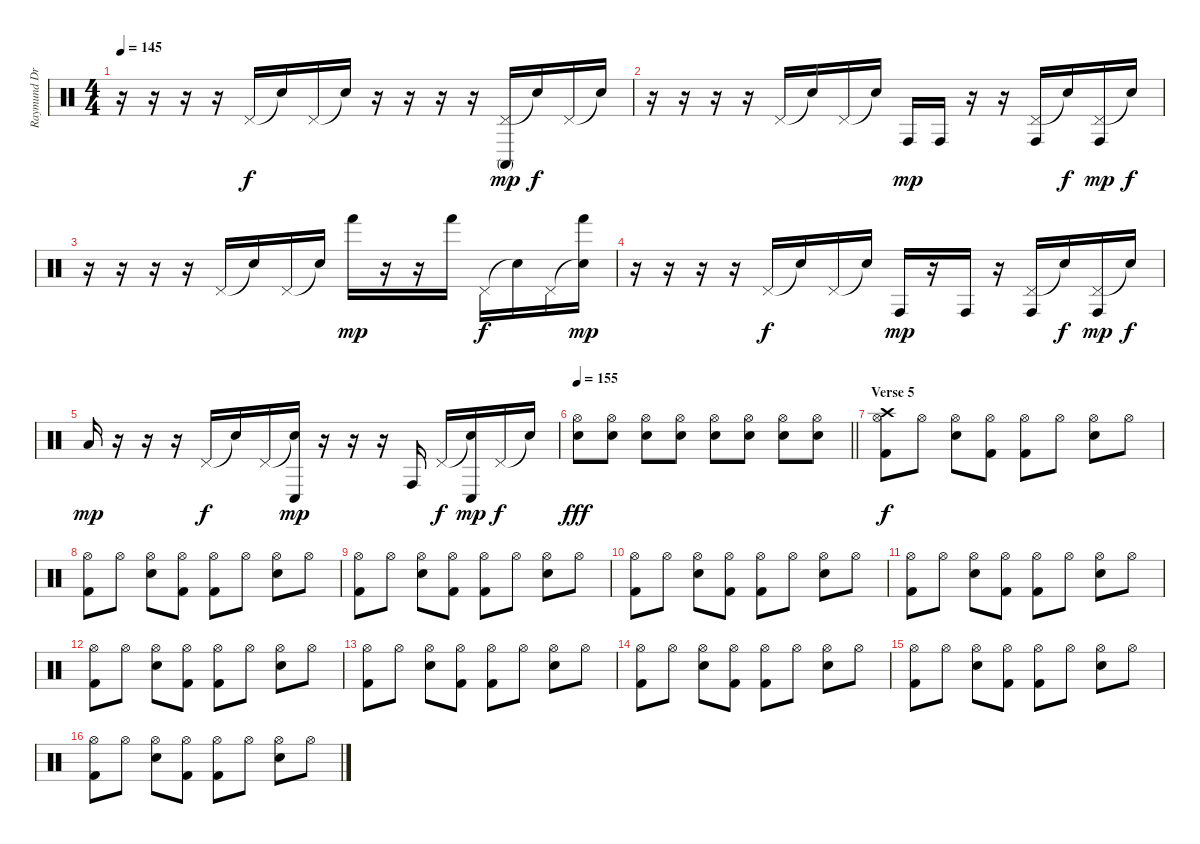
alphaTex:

\track ("Raymund Drums" "Raymund Dr") {instrument percussion}
\staff {score}
\articulation defaults
\ts (4 4)
\tempo 145
\clef neutral
\ks c
r.16{dy f} r.16 r.16 r.16 "Pedal Hi-Hat (hit)".16 "Snare (hit)"{t}.16 "Pedal Hi-Hat (hit)".16 "Snare (hit)"{t}.16 r.16 r.16 r.16 r.16 ("Pedal Hi-Hat (hit)" "Conga high (mute)").16{dy mp} "Snare (hit)"{t}.16{dy f} "Pedal Hi-Hat (hit)".16 "Snare (hit)"{t}.16 |
r.16 r.16 r.16 r.16 "Pedal Hi-Hat (hit)".16 "Snare (hit)"{t}.16 "Pedal Hi-Hat (hit)".16 "Snare (hit)"{t}.16 "Conga high (hit)".16{dy mp} "Conga high (hit)".16 r.16 r.16 ("Pedal Hi-Hat (hit)" "Conga high (hit)").16 "Snare (hit)"{t}.16{dy f} ("Pedal Hi-Hat (hit)" "Conga high (hit)").16{dy mp} "Snare (hit)"{t}.16{dy f} |
r.16 r.16 r.16 r.16 "Pedal Hi-Hat (hit)".16 "Snare (hit)"{t}.16 "Pedal Hi-Hat (hit)".16 "Snare (hit)"{t}.16 "Hand (hit)".16{dy mp} r.16 r.16 "Hand (hit)".16 "Pedal Hi-Hat (hit)".16{dy f} "Snare (hit)"{t}.16 "Pedal Hi-Hat (hit)".16 ("Snare (hit)"{t} "Hand (hit)").16{dy mp} |
r.16 r.16 r.16 r.16 "Pedal Hi-Hat (hit)".16{dy f} "Snare (hit)"{t}.16 "Pedal Hi-Hat (hit)".16 "Snare (hit)"{t}.16 "Conga high (hit)".16{dy mp} r.16 "Conga high (hit)".16 r.16 ("Pedal Hi-Hat (hit)" "Conga high (hit)").16 "Snare (hit)"{t}.16{dy f} ("Pedal Hi-Hat (hit)" "Conga high (hit)").16{dy mp} "Snare (hit)"{t}.16{dy f} |
"Low Tom (hit)".16{dy mp} r.16 r.16 r.16 "Pedal Hi-Hat (hit)".16{dy f} "Snare (hit)"{t}.16 "Pedal Hi-Hat (hit)".16 ("Snare (hit)"{t} "Conga low (hit)").16{dy mp} r.16 r.16 r.16 "Conga high (hit)".16 "Pedal Hi-Hat (hit)".16{dy f} ("Snare (hit)"{t} "Conga low (hit)").16{dy mp} "Pedal Hi-Hat (hit)".16{dy f} "Snare (hit)"{t}.16 |
\tempo 155
\barLineRight lightlight
("Hi-Hat (open)" "Snare (hit) 2").8{dy fff} ("Hi-Hat (open)" "Snare (hit) 2").8 ("Hi-Hat (open)" "Snare (hit) 2").8 ("Hi-Hat (open)" "Snare (hit) 2").8 ("Hi-Hat (open)" "Snare (hit) 2").8 ("Hi-Hat (open)" "Snare (hit) 2").8 ("Hi-Hat (open)" "Snare (hit) 2").8 ("Hi-Hat (open)" "Snare (hit) 2").8 |
\section ("" "Verse 5")
("Hi-Hat (open)" "Kick (hit) 2" "Crash high (hit)").8{dy f} "Hi-Hat (open)".8 ("Hi-Hat (open)" "Snare (hit) 2").8 ("Hi-Hat (open)" "Kick (hit) 2").8 ("Hi-Hat (open)" "Kick (hit) 2").8 "Hi-Hat (open)".8 ("Hi-Hat (open)" "Snare (hit) 2").8 "Hi-Hat (open)".8 |
("Hi-Hat (open)" "Kick (hit) 2").8 "Hi-Hat (open)".8 ("Hi-Hat (open)" "Snare (hit) 2").8 ("Hi-Hat (open)" "Kick (hit) 2").8 ("Hi-Hat (open)" "Kick (hit) 2").8 "Hi-Hat (open)".8 ("Hi-Hat (open)" "Snare (hit) 2").8 "Hi-Hat (open)".8 |
("Hi-Hat (open)" "Kick (hit) 2").8 "Hi-Hat (open)".8 ("Hi-Hat (open)" "Snare (hit) 2").8 ("Hi-Hat (open)" "Kick (hit) 2").8 ("Hi-Hat (open)" "Kick (hit) 2").8 "Hi-Hat (open)".8 ("Hi-Hat (open)" "Snare (hit) 2").8 "Hi-Hat (open)".8 |
("Hi-Hat (open)" "Kick (hit) 2").8 "Hi-Hat (open)".8 ("Hi-Hat (open)" "Snare (hit) 2").8 ("Hi-Hat (open)" "Kick (hit) 2").8 ("Hi-Hat (open)" "Kick (hit) 2").8 "Hi-Hat (open)".8 ("Hi-Hat (open)" "Snare (hit) 2").8 "Hi-Hat (open)".8 |
("Hi-Hat (open)" "Kick (hit) 2").8 "Hi-Hat (open)".8 ("Hi-Hat (open)" "Snare (hit) 2").8 ("Hi-Hat (open)" "Kick (hit) 2").8 ("Hi-Hat (open)" "Kick (hit) 2").8 "Hi-Hat (open)".8 ("Hi-Hat (open)" "Snare (hit) 2").8 "Hi-Hat (open)".8 |
("Hi-Hat (open)" "Kick (hit) 2").8 "Hi-Hat (open)".8 ("Hi-Hat (open)" "Snare (hit) 2").8 ("Hi-Hat (open)" "Kick (hit) 2").8 ("Hi-Hat (open)" "Kick (hit) 2").8 "Hi-Hat (open)".8 ("Hi-Hat (open)" "Snare (hit) 2").8 "Hi-Hat (open)".8 |
("Hi-Hat (open)" "Kick (hit) 2").8 "Hi-Hat (open)".8 ("Hi-Hat (open)" "Snare (hit) 2").8 ("Hi-Hat (open)" "Kick (hit) 2").8 ("Hi-Hat (open)" "Kick (hit) 2").8 "Hi-Hat (open)".8 ("Hi-Hat (open)" "Snare (hit) 2").8 "Hi-Hat (open)".8 |
("Hi-Hat (open)" "Kick (hit) 2").8 "Hi-Hat (open)".8 ("Hi-Hat (open)" "Snare (hit) 2").8 ("Hi-Hat (open)" "Kick (hit) 2").8 ("Hi-Hat (open)" "Kick (hit) 2").8 "Hi-Hat (open)".8 ("Hi-Hat (open)" "Snare (hit) 2").8 "Hi-Hat (open)".8 |
("Hi-Hat (open)" "Kick (hit) 2").8 "Hi-Hat (open)".8 ("Hi-Hat (open)" "Snare (hit) 2").8 ("Hi-Hat (open)" "Kick (hit) 2").8 ("Hi-Hat (open)" "Kick (hit) 2").8 "Hi-Hat (open)".8 ("Hi-Hat (open)" "Snare (hit) 2").8 "Hi-Hat (open)".8 |
("Hi-Hat (open)" "Kick (hit) 2").8 "Hi-Hat (open)".8 ("Hi-Hat (open)" "Snare (hit) 2").8 ("Hi-Hat (open)" "Kick (hit) 2").8 ("Hi-Hat (open)" "Kick (hit) 2").8 "Hi-Hat (open)".8 ("Hi-Hat (open)" "Snare (hit) 2").8 "Hi-Hat (open)".8
